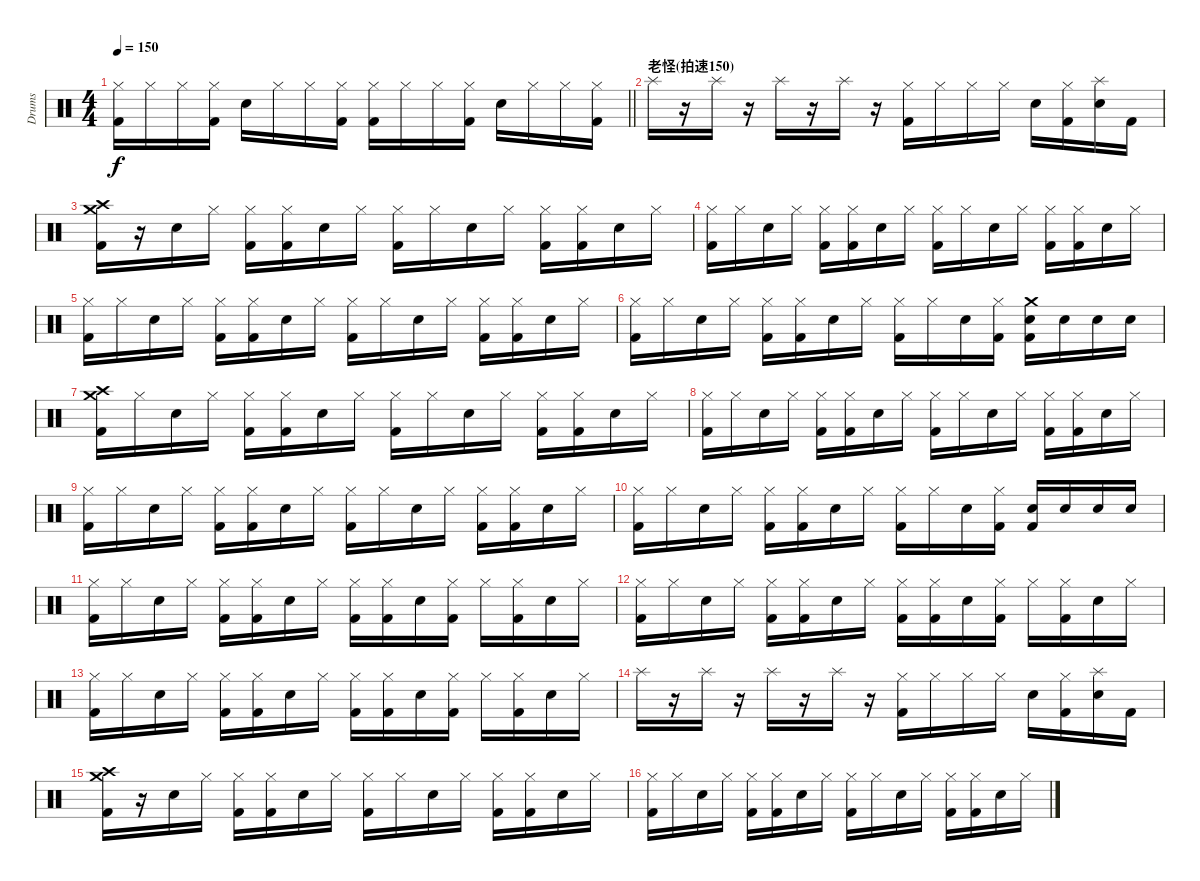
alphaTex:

\track ("Drums" "Drums") {instrument percussion}
\staff {score}
\articulation defaults
\ts (4 4)
\tempo 150
\clef neutral
\barLineRight lightlight
\ks c
("Hi-Hat (closed)" "Kick (hit) 2").16{dy f} "Hi-Hat (closed)".16 "Hi-Hat (closed)".16 ("Hi-Hat (closed)" "Kick (hit) 2").16 "Snare (hit) 2".16 "Hi-Hat (closed)".16 "Hi-Hat (closed)".16 ("Hi-Hat (closed)" "Kick (hit) 2").16 ("Hi-Hat (closed)" "Kick (hit) 2").16 "Hi-Hat (closed)".16 "Hi-Hat (closed)".16 ("Hi-Hat (closed)" "Kick (hit) 2").16 "Snare (hit) 2".16 "Hi-Hat (closed)".16 "Hi-Hat (closed)".16 ("Hi-Hat (closed)" "Kick (hit) 2").16 |
\section ("" "老怪(拍速150)")
"Splash (hit)".16{volume 13} r.16 "Splash (hit)".16 r.16 "Splash (hit)".16 r.16 "Splash (hit)".16 r.16 ("Hi-Hat (closed)" "Kick (hit) 2").16 "Hi-Hat (closed)".16 "Hi-Hat (closed)".16 "Hi-Hat (closed)".16 "Snare (hit) 2".16 ("Hi-Hat (closed)" "Kick (hit) 2").16 ("Splash (hit)" "Snare (hit) 2").16 "Kick (hit) 2".16 |
("Crash medium (hit)" "Crash high (hit)" "Kick (hit) 2").16 r.16 "Snare (hit) 2".16 "Hi-Hat (closed)".16 ("Hi-Hat (closed)" "Kick (hit) 2").16 ("Hi-Hat (closed)" "Kick (hit) 2").16 "Snare (hit) 2".16 "Hi-Hat (closed)".16 ("Hi-Hat (closed)" "Kick (hit) 2").16 "Hi-Hat (closed)".16 "Snare (hit) 2".16 "Hi-Hat (closed)".16 ("Hi-Hat (closed)" "Kick (hit) 2").16 ("Hi-Hat (closed)" "Kick (hit) 2").16 "Snare (hit) 2".16 "Hi-Hat (closed)".16 |
("Hi-Hat (closed)" "Kick (hit) 2").16 "Hi-Hat (closed)".16 "Snare (hit) 2".16 "Hi-Hat (closed)".16 ("Hi-Hat (closed)" "Kick (hit) 2").16 ("Hi-Hat (closed)" "Kick (hit) 2").16 "Snare (hit) 2".16 "Hi-Hat (closed)".16 ("Hi-Hat (closed)" "Kick (hit) 2").16 "Hi-Hat (closed)".16 "Snare (hit) 2".16 "Hi-Hat (closed)".16 ("Hi-Hat (closed)" "Kick (hit) 2").16 ("Hi-Hat (closed)" "Kick (hit) 2").16 "Snare (hit) 2".16 "Hi-Hat (closed)".16 |
("Hi-Hat (closed)" "Kick (hit) 2").16 "Hi-Hat (closed)".16 "Snare (hit) 2".16 "Hi-Hat (closed)".16 ("Hi-Hat (closed)" "Kick (hit) 2").16 ("Hi-Hat (closed)" "Kick (hit) 2").16 "Snare (hit) 2".16 "Hi-Hat (closed)".16 ("Hi-Hat (closed)" "Kick (hit) 2").16 "Hi-Hat (closed)".16 "Snare (hit) 2".16 "Hi-Hat (closed)".16 ("Hi-Hat (closed)" "Kick (hit) 2").16 ("Hi-Hat (closed)" "Kick (hit) 2").16 "Snare (hit) 2".16 "Hi-Hat (closed)".16 |
("Hi-Hat (closed)" "Kick (hit) 2").16 "Hi-Hat (closed)".16 "Snare (hit) 2".16 "Hi-Hat (closed)".16 ("Hi-Hat (closed)" "Kick (hit) 2").16 ("Hi-Hat (closed)" "Kick (hit) 2").16 "Snare (hit) 2".16 "Hi-Hat (closed)".16 ("Hi-Hat (closed)" "Kick (hit) 2").16 "Hi-Hat (closed)".16 "Snare (hit) 2".16 ("Hi-Hat (closed)" "Kick (hit) 2").16 ("Crash medium (hit)" "Snare (hit) 2" "Kick (hit) 2").16 "Snare (hit) 2".16 "Snare (hit) 2".16 "Snare (hit) 2".16 |
("Crash medium (hit)" "Crash high (hit)" "Kick (hit) 2").16 "Hi-Hat (closed)".16 "Snare (hit) 2".16 "Hi-Hat (closed)".16 ("Hi-Hat (closed)" "Kick (hit) 2").16 ("Hi-Hat (closed)" "Kick (hit) 2").16 "Snare (hit) 2".16 "Hi-Hat (closed)".16 ("Hi-Hat (closed)" "Kick (hit) 2").16 "Hi-Hat (closed)".16 "Snare (hit) 2".16 "Hi-Hat (closed)".16 ("Hi-Hat (closed)" "Kick (hit) 2").16 ("Hi-Hat (closed)" "Kick (hit) 2").16 "Snare (hit) 2".16 "Hi-Hat (closed)".16 |
("Hi-Hat (closed)" "Kick (hit) 2").16 "Hi-Hat (closed)".16 "Snare (hit) 2".16 "Hi-Hat (closed)".16 ("Hi-Hat (closed)" "Kick (hit) 2").16 ("Hi-Hat (closed)" "Kick (hit) 2").16 "Snare (hit) 2".16 "Hi-Hat (closed)".16 ("Hi-Hat (closed)" "Kick (hit) 2").16 "Hi-Hat (closed)".16 "Snare (hit) 2".16 "Hi-Hat (closed)".16 ("Hi-Hat (closed)" "Kick (hit) 2").16 ("Hi-Hat (closed)" "Kick (hit) 2").16 "Snare (hit) 2".16 "Hi-Hat (closed)".16 |
("Hi-Hat (closed)" "Kick (hit) 2").16 "Hi-Hat (closed)".16 "Snare (hit) 2".16 "Hi-Hat (closed)".16 ("Hi-Hat (closed)" "Kick (hit) 2").16 ("Hi-Hat (closed)" "Kick (hit) 2").16 "Snare (hit) 2".16 "Hi-Hat (closed)".16 ("Hi-Hat (closed)" "Kick (hit) 2").16 "Hi-Hat (closed)".16 "Snare (hit) 2".16 "Hi-Hat (closed)".16 ("Hi-Hat (closed)" "Kick (hit) 2").16 ("Hi-Hat (closed)" "Kick (hit) 2").16 "Snare (hit) 2".16 "Hi-Hat (closed)".16 |
("Hi-Hat (closed)" "Kick (hit) 2").16 "Hi-Hat (closed)".16 "Snare (hit) 2".16 "Hi-Hat (closed)".16 ("Hi-Hat (closed)" "Kick (hit) 2").16 ("Hi-Hat (closed)" "Kick (hit) 2").16 "Snare (hit) 2".16 "Hi-Hat (closed)".16 ("Hi-Hat (closed)" "Kick (hit) 2").16 "Hi-Hat (closed)".16 "Snare (hit) 2".16 ("Hi-Hat (closed)" "Kick (hit) 2").16 ("Snare (hit) 2" "Kick (hit) 2").16 "Snare (hit) 2".16 "Snare (hit) 2".16 "Snare (hit) 2".16 |
("Hi-Hat (closed)" "Kick (hit) 2").16 "Hi-Hat (closed)".16 "Snare (hit) 2".16 "Hi-Hat (closed)".16 ("Hi-Hat (closed)" "Kick (hit) 2").16 ("Hi-Hat (closed)" "Kick (hit) 2").16 "Snare (hit) 2".16 "Hi-Hat (closed)".16 ("Hi-Hat (closed)" "Kick (hit) 2").16 ("Hi-Hat (closed)" "Kick (hit) 2").16 "Snare (hit) 2".16 ("Hi-Hat (closed)" "Kick (hit) 2").16 "Hi-Hat (closed)".16 ("Hi-Hat (closed)" "Kick (hit) 2").16 "Snare (hit) 2".16 "Hi-Hat (closed)".16 |
("Hi-Hat (closed)" "Kick (hit) 2").16 "Hi-Hat (closed)".16 "Snare (hit) 2".16 "Hi-Hat (closed)".16 ("Hi-Hat (closed)" "Kick (hit) 2").16 ("Hi-Hat (closed)" "Kick (hit) 2").16 "Snare (hit) 2".16 "Hi-Hat (closed)".16 ("Hi-Hat (closed)" "Kick (hit) 2").16 ("Hi-Hat (closed)" "Kick (hit) 2").16 "Snare (hit) 2".16 ("Hi-Hat (closed)" "Kick (hit) 2").16 "Hi-Hat (closed)".16 ("Hi-Hat (closed)" "Kick (hit) 2").16 "Snare (hit) 2".16 "Hi-Hat (closed)".16 |
("Hi-Hat (closed)" "Kick (hit) 2").16 "Hi-Hat (closed)".16 "Snare (hit) 2".16 "Hi-Hat (closed)".16 ("Hi-Hat (closed)" "Kick (hit) 2").16 ("Hi-Hat (closed)" "Kick (hit) 2").16 "Snare (hit) 2".16 "Hi-Hat (closed)".16 ("Hi-Hat (closed)" "Kick (hit) 2").16 ("Hi-Hat (closed)" "Kick (hit) 2").16 "Snare (hit) 2".16 ("Hi-Hat (closed)" "Kick (hit) 2").16 "Hi-Hat (closed)".16 ("Hi-Hat (closed)" "Kick (hit) 2").16 "Snare (hit) 2".16 "Hi-Hat (closed)".16 |
"Splash (hit)".16 r.16 "Splash (hit)".16 r.16 "Splash (hit)".16 r.16 "Splash (hit)".16 r.16 ("Hi-Hat (closed)" "Kick (hit) 2").16 "Hi-Hat (closed)".16 "Hi-Hat (closed)".16 "Hi-Hat (closed)".16 "Snare (hit) 2".16 ("Hi-Hat (closed)" "Kick (hit) 2").16 ("Splash (hit)" "Snare (hit) 2").16 "Kick (hit) 2".16 |
("Crash medium (hit)" "Crash high (hit)" "Kick (hit) 2").16 r.16 "Snare (hit) 2".16 "Hi-Hat (closed)".16 ("Hi-Hat (closed)" "Kick (hit) 2").16 ("Hi-Hat (closed)" "Kick (hit) 2").16 "Snare (hit) 2".16 "Hi-Hat (closed)".16 ("Hi-Hat (closed)" "Kick (hit) 2").16 "Hi-Hat (closed)".16 "Snare (hit) 2".16 "Hi-Hat (closed)".16 ("Hi-Hat (closed)" "Kick (hit) 2").16 ("Hi-Hat (closed)" "Kick (hit) 2").16 "Snare (hit) 2".16 "Hi-Hat (closed)".16 |
("Hi-Hat (closed)" "Kick (hit) 2").16 "Hi-Hat (closed)".16 "Snare (hit) 2".16 "Hi-Hat (closed)".16 ("Hi-Hat (closed)" "Kick (hit) 2").16 ("Hi-Hat (closed)" "Kick (hit) 2").16 "Snare (hit) 2".16 "Hi-Hat (closed)".16 ("Hi-Hat (closed)" "Kick (hit) 2").16 "Hi-Hat (closed)".16 "Snare (hit) 2".16 "Hi-Hat (closed)".16 ("Hi-Hat (closed)" "Kick (hit) 2").16 ("Hi-Hat (closed)" "Kick (hit) 2").16 "Snare (hit) 2".16 "Hi-Hat (closed)".16
